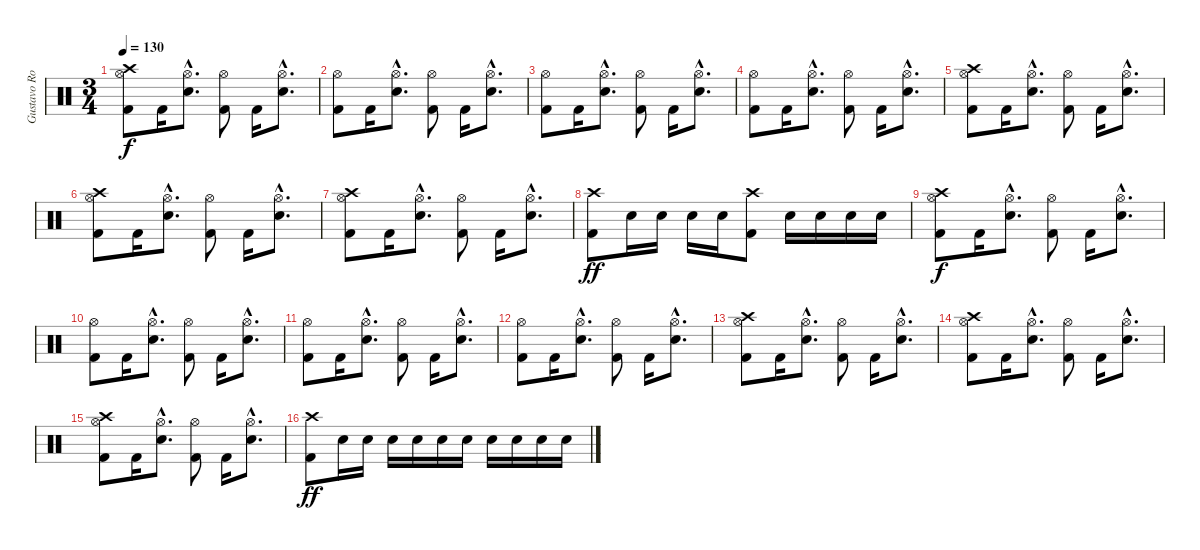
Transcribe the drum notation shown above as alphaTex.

\track ("Gustavo Rowek" "Gustavo Ro") {instrument percussion}
\staff {score}
\articulation defaults
\ts (3 4)
\tempo 130
\clef neutral
\ks c
("Hi-Hat (open)" "Crash high (hit)" "Kick (hit) 2").8{dy f} "Kick (hit) 2".16 ("Hi-Hat (open)"{hac} "Snare (hit) 2"{hac}).8{d} ("Hi-Hat (open)" "Kick (hit) 2").8 "Kick (hit) 2".16 ("Hi-Hat (open)"{hac} "Snare (hit) 2"{hac}).8{d} |
("Hi-Hat (open)" "Kick (hit) 2").8 "Kick (hit) 2".16 ("Hi-Hat (open)"{hac} "Snare (hit) 2"{hac}).8{d} ("Hi-Hat (open)" "Kick (hit) 2").8 "Kick (hit) 2".16 ("Hi-Hat (open)"{hac} "Snare (hit) 2"{hac}).8{d} |
("Hi-Hat (open)" "Kick (hit) 2").8 "Kick (hit) 2".16 ("Hi-Hat (open)"{hac} "Snare (hit) 2"{hac}).8{d} ("Hi-Hat (open)" "Kick (hit) 2").8 "Kick (hit) 2".16 ("Hi-Hat (open)"{hac} "Snare (hit) 2"{hac}).8{d} |
("Hi-Hat (open)" "Kick (hit) 2").8 "Kick (hit) 2".16 ("Hi-Hat (open)"{hac} "Snare (hit) 2"{hac}).8{d} ("Hi-Hat (open)" "Kick (hit) 2").8 "Kick (hit) 2".16 ("Hi-Hat (open)"{hac} "Snare (hit) 2"{hac}).8{d} |
("Hi-Hat (open)" "Crash high (hit)" "Kick (hit) 2").8 "Kick (hit) 2".16 ("Hi-Hat (open)"{hac} "Snare (hit) 2"{hac}).8{d} ("Hi-Hat (open)" "Kick (hit) 2").8 "Kick (hit) 2".16 ("Hi-Hat (open)"{hac} "Snare (hit) 2"{hac}).8{d} |
("Hi-Hat (open)" "Crash high (hit)" "Kick (hit) 2").8 "Kick (hit) 2".16 ("Hi-Hat (open)"{hac} "Snare (hit) 2"{hac}).8{d} ("Hi-Hat (open)" "Kick (hit) 2").8 "Kick (hit) 2".16 ("Hi-Hat (open)"{hac} "Snare (hit) 2"{hac}).8{d} |
("Hi-Hat (open)" "Crash high (hit)" "Kick (hit) 2").8 "Kick (hit) 2".16 ("Hi-Hat (open)"{hac} "Snare (hit) 2"{hac}).8{d} ("Hi-Hat (open)" "Kick (hit) 2").8 "Kick (hit) 2".16 ("Hi-Hat (open)"{hac} "Snare (hit) 2"{hac}).8{d} |
("Kick (hit) 2" "Crash high (hit)").8{dy ff} "Electric Snare (hit)".16 "Electric Snare (hit)".16 "Electric Snare (hit)".16 "Electric Snare (hit)".16 ("Kick (hit) 2" "Crash high (hit)").8 "Electric Snare (hit)".16 "Electric Snare (hit)".16 "Electric Snare (hit)".16 "Electric Snare (hit)".16 |
("Hi-Hat (open)" "Crash high (hit)" "Kick (hit) 2").8{dy f} "Kick (hit) 2".16 ("Hi-Hat (open)"{hac} "Snare (hit) 2"{hac}).8{d} ("Hi-Hat (open)" "Kick (hit) 2").8 "Kick (hit) 2".16 ("Hi-Hat (open)"{hac} "Snare (hit) 2"{hac}).8{d} |
("Hi-Hat (open)" "Kick (hit) 2").8 "Kick (hit) 2".16 ("Hi-Hat (open)"{hac} "Snare (hit) 2"{hac}).8{d} ("Hi-Hat (open)" "Kick (hit) 2").8 "Kick (hit) 2".16 ("Hi-Hat (open)"{hac} "Snare (hit) 2"{hac}).8{d} |
("Hi-Hat (open)" "Kick (hit) 2").8 "Kick (hit) 2".16 ("Hi-Hat (open)"{hac} "Snare (hit) 2"{hac}).8{d} ("Hi-Hat (open)" "Kick (hit) 2").8 "Kick (hit) 2".16 ("Hi-Hat (open)"{hac} "Snare (hit) 2"{hac}).8{d} |
("Hi-Hat (open)" "Kick (hit) 2").8 "Kick (hit) 2".16 ("Hi-Hat (open)"{hac} "Snare (hit) 2"{hac}).8{d} ("Hi-Hat (open)" "Kick (hit) 2").8 "Kick (hit) 2".16 ("Hi-Hat (open)"{hac} "Snare (hit) 2"{hac}).8{d} |
("Hi-Hat (open)" "Crash high (hit)" "Kick (hit) 2").8 "Kick (hit) 2".16 ("Hi-Hat (open)"{hac} "Snare (hit) 2"{hac}).8{d} ("Hi-Hat (open)" "Kick (hit) 2").8 "Kick (hit) 2".16 ("Hi-Hat (open)"{hac} "Snare (hit) 2"{hac}).8{d} |
("Hi-Hat (open)" "Crash high (hit)" "Kick (hit) 2").8 "Kick (hit) 2".16 ("Hi-Hat (open)"{hac} "Snare (hit) 2"{hac}).8{d} ("Hi-Hat (open)" "Kick (hit) 2").8 "Kick (hit) 2".16 ("Hi-Hat (open)"{hac} "Snare (hit) 2"{hac}).8{d} |
("Hi-Hat (open)" "Crash high (hit)" "Kick (hit) 2").8 "Kick (hit) 2".16 ("Hi-Hat (open)"{hac} "Snare (hit) 2"{hac}).8{d} ("Hi-Hat (open)" "Kick (hit) 2").8 "Kick (hit) 2".16 ("Hi-Hat (open)"{hac} "Snare (hit) 2"{hac}).8{d} |
("Kick (hit) 2" "Crash high (hit)").8{dy ff} "Electric Snare (hit)".16 "Electric Snare (hit)".16 "Electric Snare (hit)".16 "Electric Snare (hit)".16 "Electric Snare (hit)".16 "Electric Snare (hit)".16 "Electric Snare (hit)".16 "Electric Snare (hit)".16 "Electric Snare (hit)".16 "Electric Snare (hit)".16
